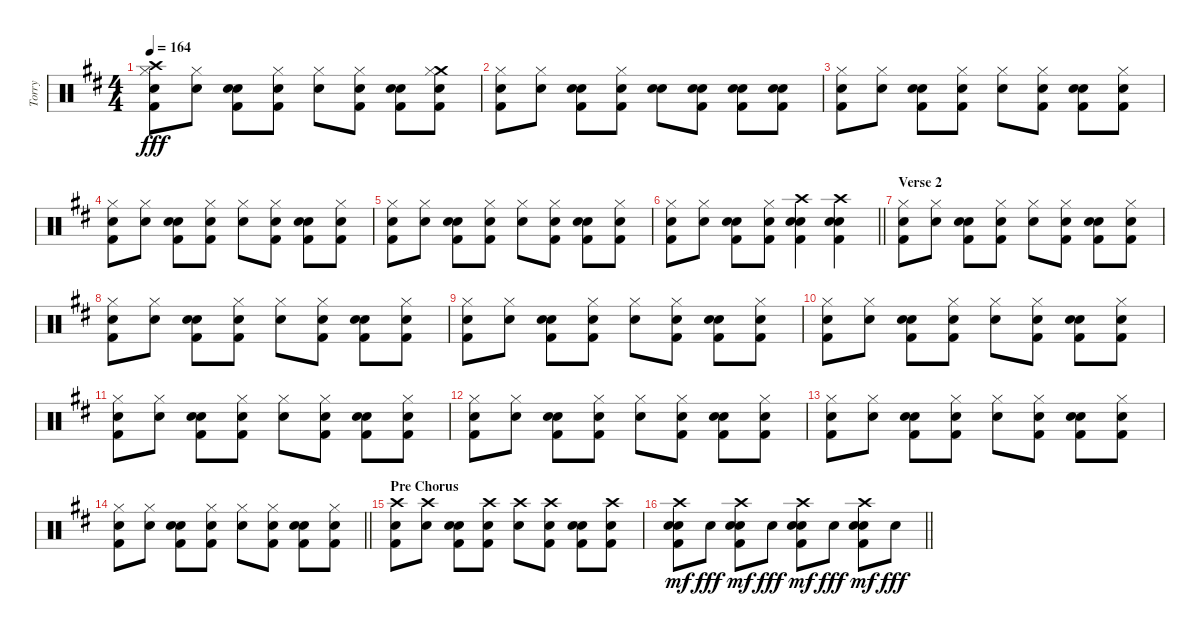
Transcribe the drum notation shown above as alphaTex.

\track ("Torry" "Torry") {instrument percussion}
\staff {score}
\articulation defaults
\ts (4 4)
\tempo 164
\clef neutral
\ks d
("Crash high (hit)" "Hi-Hat (closed)" "Snare (hit) 2" "Kick (hit) 2").8{dy fff} ("Hi-Hat (closed)" "Snare (hit) 2").8 ("Electric Snare (hit)" "Snare (hit) 2" "Kick (hit) 2").8 ("Hi-Hat (closed)" "Snare (hit) 2" "Kick (hit) 2").8 ("Hi-Hat (closed)" "Snare (hit) 2").8 ("Hi-Hat (closed)" "Snare (hit) 2" "Kick (hit) 2").8 ("Electric Snare (hit)" "Snare (hit) 2" "Kick (hit) 2").8 ("Crash medium (hit)" "Hi-Hat (closed)" "Snare (hit) 2" "Kick (hit) 2").8 |
("Hi-Hat (closed)" "Snare (hit) 2" "Kick (hit) 2").8 ("Hi-Hat (closed)" "Snare (hit) 2").8 ("Electric Snare (hit)" "Snare (hit) 2" "Kick (hit) 2").8 ("Hi-Hat (closed)" "Snare (hit) 2" "Kick (hit) 2").8 ("Electric Snare (hit)" "Snare (hit) 2").8 ("Electric Snare (hit)" "Snare (hit) 2" "Kick (hit) 2").8 ("Electric Snare (hit)" "Snare (hit) 2" "Kick (hit) 2").8 ("Electric Snare (hit)" "Snare (hit) 2" "Kick (hit) 2").8 |
("Hi-Hat (closed)" "Snare (hit) 2" "Kick (hit) 2").8 ("Hi-Hat (closed)" "Snare (hit) 2").8 ("Electric Snare (hit)" "Snare (hit) 2" "Kick (hit) 2").8 ("Hi-Hat (closed)" "Snare (hit) 2" "Kick (hit) 2").8 ("Hi-Hat (closed)" "Snare (hit) 2").8 ("Hi-Hat (closed)" "Snare (hit) 2" "Kick (hit) 2").8 ("Electric Snare (hit)" "Snare (hit) 2" "Kick (hit) 2").8 ("Hi-Hat (closed)" "Snare (hit) 2" "Kick (hit) 2").8 |
("Hi-Hat (closed)" "Snare (hit) 2" "Kick (hit) 2").8 ("Hi-Hat (closed)" "Snare (hit) 2").8 ("Electric Snare (hit)" "Snare (hit) 2" "Kick (hit) 2").8 ("Hi-Hat (closed)" "Snare (hit) 2" "Kick (hit) 2").8 ("Hi-Hat (closed)" "Snare (hit) 2").8 ("Hi-Hat (closed)" "Snare (hit) 2" "Kick (hit) 2").8 ("Electric Snare (hit)" "Snare (hit) 2" "Kick (hit) 2").8 ("Hi-Hat (closed)" "Snare (hit) 2" "Kick (hit) 2").8 |
("Hi-Hat (closed)" "Snare (hit) 2" "Kick (hit) 2").8 ("Hi-Hat (closed)" "Snare (hit) 2").8 ("Electric Snare (hit)" "Snare (hit) 2" "Kick (hit) 2").8 ("Hi-Hat (closed)" "Snare (hit) 2" "Kick (hit) 2").8 ("Hi-Hat (closed)" "Snare (hit) 2").8 ("Hi-Hat (closed)" "Snare (hit) 2" "Kick (hit) 2").8 ("Electric Snare (hit)" "Snare (hit) 2" "Kick (hit) 2").8 ("Hi-Hat (closed)" "Snare (hit) 2" "Kick (hit) 2").8 |
\barLineRight lightlight
("Hi-Hat (closed)" "Snare (hit) 2" "Kick (hit) 2").8 ("Hi-Hat (closed)" "Snare (hit) 2").8 ("Electric Snare (hit)" "Snare (hit) 2" "Kick (hit) 2").8 ("Hi-Hat (closed)" "Snare (hit) 2" "Kick (hit) 2").8 ("Crash high (hit)" "Snare (hit) 2" "Electric Snare (hit)" "Kick (hit) 2").4 ("Crash high (hit)" "Snare (hit) 2" "Electric Snare (hit)" "Kick (hit) 2").4 |
\section ("" "Verse 2")
("Hi-Hat (closed)" "Snare (hit) 2" "Kick (hit) 2").8 ("Hi-Hat (closed)" "Snare (hit) 2").8 ("Electric Snare (hit)" "Snare (hit) 2" "Kick (hit) 2").8 ("Hi-Hat (closed)" "Snare (hit) 2" "Kick (hit) 2").8 ("Hi-Hat (closed)" "Snare (hit) 2").8 ("Hi-Hat (closed)" "Snare (hit) 2" "Kick (hit) 2").8 ("Electric Snare (hit)" "Snare (hit) 2" "Kick (hit) 2").8 ("Hi-Hat (closed)" "Snare (hit) 2" "Kick (hit) 2").8 |
("Hi-Hat (closed)" "Snare (hit) 2" "Kick (hit) 2").8 ("Hi-Hat (closed)" "Snare (hit) 2").8 ("Electric Snare (hit)" "Snare (hit) 2" "Kick (hit) 2").8 ("Hi-Hat (closed)" "Snare (hit) 2" "Kick (hit) 2").8 ("Hi-Hat (closed)" "Snare (hit) 2").8 ("Hi-Hat (closed)" "Snare (hit) 2" "Kick (hit) 2").8 ("Electric Snare (hit)" "Snare (hit) 2" "Kick (hit) 2").8 ("Hi-Hat (closed)" "Snare (hit) 2" "Kick (hit) 2").8 |
("Hi-Hat (closed)" "Snare (hit) 2" "Kick (hit) 2").8 ("Hi-Hat (closed)" "Snare (hit) 2").8 ("Electric Snare (hit)" "Snare (hit) 2" "Kick (hit) 2").8 ("Hi-Hat (closed)" "Snare (hit) 2" "Kick (hit) 2").8 ("Hi-Hat (closed)" "Snare (hit) 2").8 ("Hi-Hat (closed)" "Snare (hit) 2" "Kick (hit) 2").8 ("Electric Snare (hit)" "Snare (hit) 2" "Kick (hit) 2").8 ("Hi-Hat (closed)" "Snare (hit) 2" "Kick (hit) 2").8 |
("Hi-Hat (closed)" "Snare (hit) 2" "Kick (hit) 2").8 ("Hi-Hat (closed)" "Snare (hit) 2").8 ("Electric Snare (hit)" "Snare (hit) 2" "Kick (hit) 2").8 ("Hi-Hat (closed)" "Snare (hit) 2" "Kick (hit) 2").8 ("Hi-Hat (closed)" "Snare (hit) 2").8 ("Hi-Hat (closed)" "Snare (hit) 2" "Kick (hit) 2").8 ("Electric Snare (hit)" "Snare (hit) 2" "Kick (hit) 2").8 ("Hi-Hat (closed)" "Snare (hit) 2" "Kick (hit) 2").8 |
("Hi-Hat (closed)" "Snare (hit) 2" "Kick (hit) 2").8 ("Hi-Hat (closed)" "Snare (hit) 2").8 ("Electric Snare (hit)" "Snare (hit) 2" "Kick (hit) 2").8 ("Hi-Hat (closed)" "Snare (hit) 2" "Kick (hit) 2").8 ("Hi-Hat (closed)" "Snare (hit) 2").8 ("Hi-Hat (closed)" "Snare (hit) 2" "Kick (hit) 2").8 ("Electric Snare (hit)" "Snare (hit) 2" "Kick (hit) 2").8 ("Hi-Hat (closed)" "Snare (hit) 2" "Kick (hit) 2").8 |
("Hi-Hat (closed)" "Snare (hit) 2" "Kick (hit) 2").8 ("Hi-Hat (closed)" "Snare (hit) 2").8 ("Electric Snare (hit)" "Snare (hit) 2" "Kick (hit) 2").8 ("Hi-Hat (closed)" "Snare (hit) 2" "Kick (hit) 2").8 ("Hi-Hat (closed)" "Snare (hit) 2").8 ("Hi-Hat (closed)" "Snare (hit) 2" "Kick (hit) 2").8 ("Electric Snare (hit)" "Snare (hit) 2" "Kick (hit) 2").8 ("Hi-Hat (closed)" "Snare (hit) 2" "Kick (hit) 2").8 |
("Hi-Hat (closed)" "Snare (hit) 2" "Kick (hit) 2").8 ("Hi-Hat (closed)" "Snare (hit) 2").8 ("Electric Snare (hit)" "Snare (hit) 2" "Kick (hit) 2").8 ("Hi-Hat (closed)" "Snare (hit) 2" "Kick (hit) 2").8 ("Hi-Hat (closed)" "Snare (hit) 2").8 ("Hi-Hat (closed)" "Snare (hit) 2" "Kick (hit) 2").8 ("Electric Snare (hit)" "Snare (hit) 2" "Kick (hit) 2").8 ("Hi-Hat (closed)" "Snare (hit) 2" "Kick (hit) 2").8 |
\barLineRight lightlight
("Hi-Hat (closed)" "Snare (hit) 2" "Kick (hit) 2").8 ("Hi-Hat (closed)" "Snare (hit) 2").8 ("Electric Snare (hit)" "Snare (hit) 2" "Kick (hit) 2").8 ("Hi-Hat (closed)" "Snare (hit) 2" "Kick (hit) 2").8 ("Hi-Hat (closed)" "Snare (hit) 2").8 ("Hi-Hat (closed)" "Snare (hit) 2" "Kick (hit) 2").8 ("Electric Snare (hit)" "Snare (hit) 2" "Kick (hit) 2").8 ("Hi-Hat (closed)" "Snare (hit) 2" "Kick (hit) 2").8 |
\section ("" "Pre Chorus")
("Crash high (hit)" "Snare (hit) 2" "Kick (hit) 2").8 ("Crash high (hit)" "Snare (hit) 2").8 ("Electric Snare (hit)" "Snare (hit) 2" "Kick (hit) 2").8 ("Crash high (hit)" "Snare (hit) 2" "Kick (hit) 2").8 ("Crash high (hit)" "Snare (hit) 2").8 ("Crash high (hit)" "Snare (hit) 2" "Kick (hit) 2").8 ("Electric Snare (hit)" "Snare (hit) 2" "Kick (hit) 2").8 ("Crash high (hit)" "Snare (hit) 2" "Kick (hit) 2").8 |
\barLineRight lightlight
("Crash high (hit)" "Electric Snare (hit)" "Snare (hit) 2" "Kick (hit) 2").8{dy mf} "Electric Snare (hit)".8{dy fff} ("Crash high (hit)" "Electric Snare (hit)" "Snare (hit) 2" "Kick (hit) 2").8{dy mf} "Electric Snare (hit)".8{dy fff} ("Crash high (hit)" "Electric Snare (hit)" "Snare (hit) 2" "Kick (hit) 2").8{dy mf} "Electric Snare (hit)".8{dy fff} ("Crash high (hit)" "Electric Snare (hit)" "Snare (hit) 2" "Kick (hit) 2").8{dy mf} "Electric Snare (hit)".8{dy fff}
